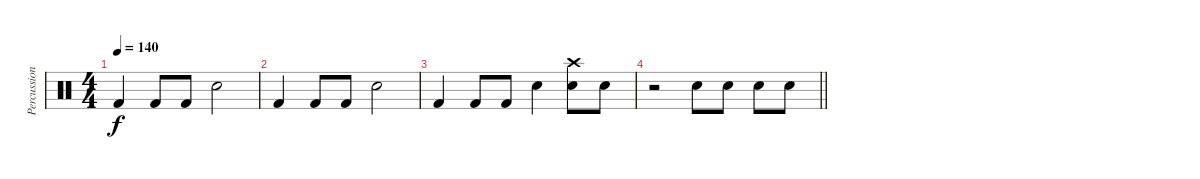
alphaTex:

\track ("Percussion" "Percussion") {instrument percussion}
\staff {score}
\articulation defaults
\ts (4 4)
\tempo 140
\clef neutral
\ks c "Kick (hit) 2".4{dy f} "Kick (hit) 2".8 "Kick (hit) 2".8 "Snare (hit) 2".2
|
"Kick (hit) 2".4 "Kick (hit) 2".8 "Kick (hit) 2".8 "Snare (hit) 2".2 |
"Kick (hit) 2".4 "Kick (hit) 2".8 "Kick (hit) 2".8 "Snare (hit) 2".4 ("Crash high (hit)" "Snare (hit) 2").8 "Snare (hit) 2".8 |
\barLineRight lightlight
r.2 "Snare (hit) 2".8 "Snare (hit) 2".8 "Snare (hit) 2".8 "Snare (hit) 2".8
